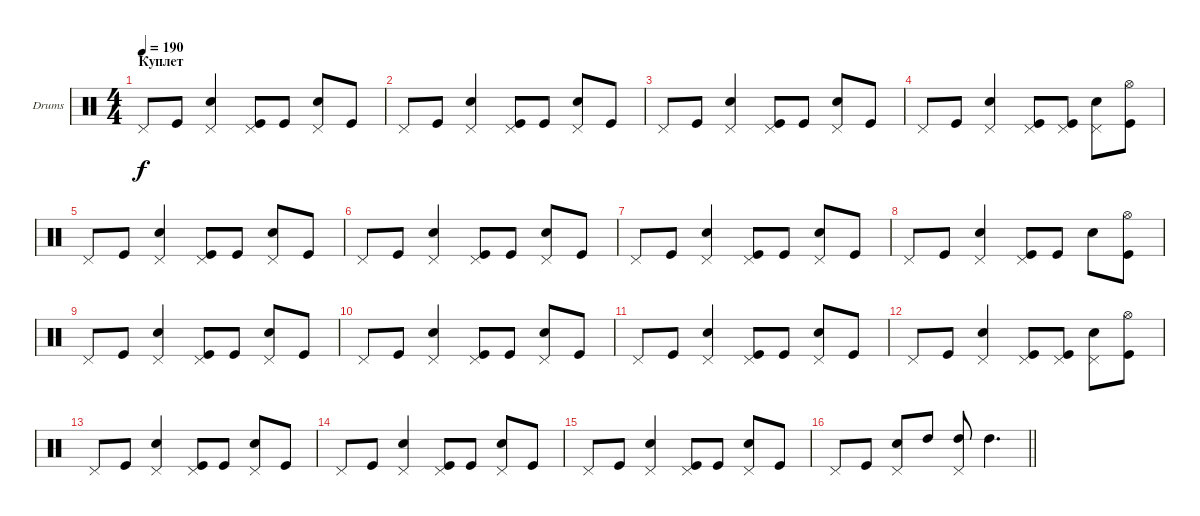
\bracketExtendMode groupsimilarinstruments
\firstSystemTrackNameOrientation horizontal
\otherSystemsTrackNameOrientation horizontal
\track ("Максим Удалов" "Drums") {instrument percussion}
\staff {score}
\articulation defaults
\ts (4 4)
\section ("" "Куплет")
\tempo 190
\clef neutral
\ks c "Pedal Hi-Hat (hit)".8{dy f} "Kick (hit)".8
("Snare (hit) 2" "Pedal Hi-Hat (hit)").4 ("Kick (hit)" "Pedal Hi-Hat (hit)").8 "Kick (hit)".8 ("Snare (hit) 2" "Pedal Hi-Hat (hit)").8 "Kick (hit)".8 |
"Pedal Hi-Hat (hit)".8 "Kick (hit)".8 ("Snare (hit) 2" "Pedal Hi-Hat (hit)").4 ("Kick (hit)" "Pedal Hi-Hat (hit)").8 "Kick (hit)".8 ("Snare (hit) 2" "Pedal Hi-Hat (hit)").8 "Kick (hit)".8 |
"Pedal Hi-Hat (hit)".8 "Kick (hit)".8 ("Snare (hit) 2" "Pedal Hi-Hat (hit)").4 ("Kick (hit)" "Pedal Hi-Hat (hit)").8 "Kick (hit)".8 ("Snare (hit) 2" "Pedal Hi-Hat (hit)").8 "Kick (hit)".8 |
"Pedal Hi-Hat (hit)".8 "Kick (hit)".8 ("Snare (hit) 2" "Pedal Hi-Hat (hit)").4 ("Kick (hit)" "Pedal Hi-Hat (hit)").8 ("Kick (hit)" "Pedal Hi-Hat (hit)").8 ("Snare (hit) 2" "Pedal Hi-Hat (hit)").8 ("Kick (hit)" "Hi-Hat (open)").8 |
"Pedal Hi-Hat (hit)".8 "Kick (hit)".8 ("Snare (hit) 2" "Pedal Hi-Hat (hit)").4 ("Kick (hit)" "Pedal Hi-Hat (hit)").8 "Kick (hit)".8 ("Snare (hit) 2" "Pedal Hi-Hat (hit)").8 "Kick (hit)".8 |
"Pedal Hi-Hat (hit)".8 "Kick (hit)".8 ("Snare (hit) 2" "Pedal Hi-Hat (hit)").4 ("Kick (hit)" "Pedal Hi-Hat (hit)").8 "Kick (hit)".8 ("Snare (hit) 2" "Pedal Hi-Hat (hit)").8 "Kick (hit)".8 |
"Pedal Hi-Hat (hit)".8 "Kick (hit)".8 ("Snare (hit) 2" "Pedal Hi-Hat (hit)").4 ("Kick (hit)" "Pedal Hi-Hat (hit)").8 "Kick (hit)".8 ("Snare (hit) 2" "Pedal Hi-Hat (hit)").8 "Kick (hit)".8 |
"Pedal Hi-Hat (hit)".8 "Kick (hit)".8 ("Snare (hit) 2" "Pedal Hi-Hat (hit)").4 ("Kick (hit)" "Pedal Hi-Hat (hit)").8 "Kick (hit)".8 "Snare (hit) 2".8 ("Kick (hit)" "Hi-Hat (open)").8 |
"Pedal Hi-Hat (hit)".8 "Kick (hit)".8 ("Snare (hit) 2" "Pedal Hi-Hat (hit)").4 ("Kick (hit)" "Pedal Hi-Hat (hit)").8 "Kick (hit)".8 ("Snare (hit) 2" "Pedal Hi-Hat (hit)").8 "Kick (hit)".8 |
"Pedal Hi-Hat (hit)".8 "Kick (hit)".8 ("Snare (hit) 2" "Pedal Hi-Hat (hit)").4 ("Kick (hit)" "Pedal Hi-Hat (hit)").8 "Kick (hit)".8 ("Snare (hit) 2" "Pedal Hi-Hat (hit)").8 "Kick (hit)".8 |
"Pedal Hi-Hat (hit)".8 "Kick (hit)".8 ("Snare (hit) 2" "Pedal Hi-Hat (hit)").4 ("Kick (hit)" "Pedal Hi-Hat (hit)").8 "Kick (hit)".8 ("Snare (hit) 2" "Pedal Hi-Hat (hit)").8 "Kick (hit)".8 |
"Pedal Hi-Hat (hit)".8 "Kick (hit)".8 ("Snare (hit) 2" "Pedal Hi-Hat (hit)").4 ("Kick (hit)" "Pedal Hi-Hat (hit)").8 ("Kick (hit)" "Pedal Hi-Hat (hit)").8 ("Snare (hit) 2" "Pedal Hi-Hat (hit)").8 ("Kick (hit)" "Hi-Hat (open)").8 |
"Pedal Hi-Hat (hit)".8 "Kick (hit)".8 ("Snare (hit) 2" "Pedal Hi-Hat (hit)").4 ("Kick (hit)" "Pedal Hi-Hat (hit)").8 "Kick (hit)".8 ("Snare (hit) 2" "Pedal Hi-Hat (hit)").8 "Kick (hit)".8 |
"Pedal Hi-Hat (hit)".8 "Kick (hit)".8 ("Snare (hit) 2" "Pedal Hi-Hat (hit)").4 ("Kick (hit)" "Pedal Hi-Hat (hit)").8 "Kick (hit)".8 ("Snare (hit) 2" "Pedal Hi-Hat (hit)").8 "Kick (hit)".8 |
"Pedal Hi-Hat (hit)".8 "Kick (hit)".8 ("Snare (hit) 2" "Pedal Hi-Hat (hit)").4 ("Kick (hit)" "Pedal Hi-Hat (hit)").8 "Kick (hit)".8 ("Snare (hit) 2" "Pedal Hi-Hat (hit)").8 "Kick (hit)".8 |
\barLineRight lightlight "Pedal Hi-Hat (hit)".8 "Kick (hit)".8
("Snare (hit) 2" "Pedal Hi-Hat (hit)").8 "High Tom (hit)".8 ("High Tom (hit)" "Pedal Hi-Hat (hit)").8 "High Tom (hit)".4{d}
